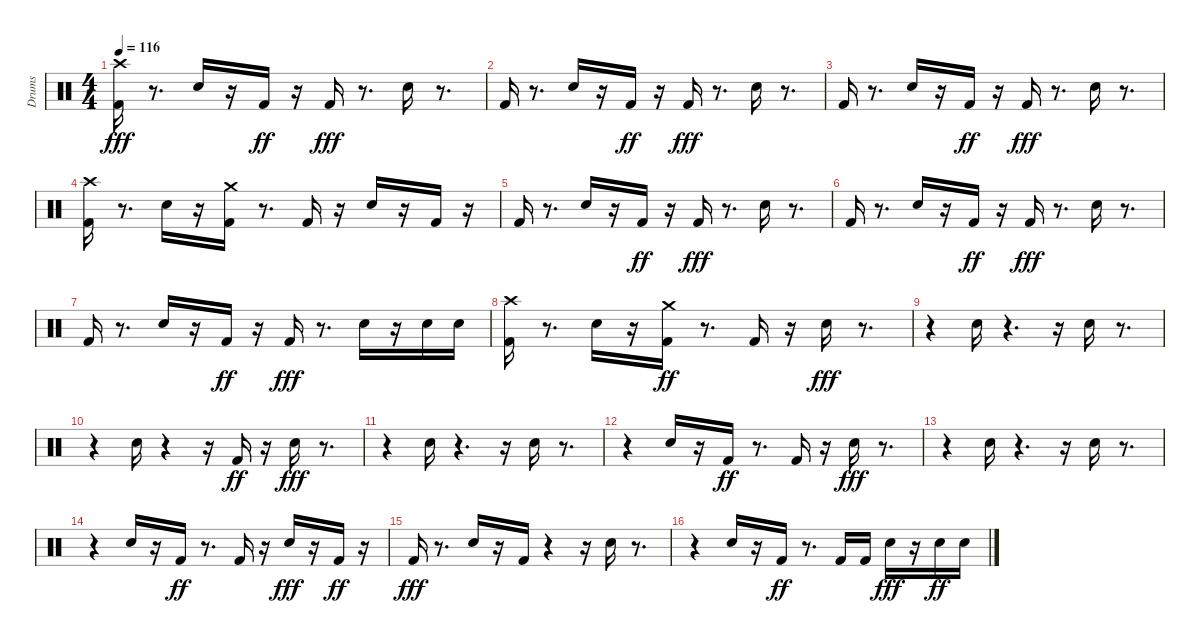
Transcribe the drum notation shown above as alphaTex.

\track ("Drums" "Drums") {instrument percussion}
\staff {score}
\articulation defaults
\ts (4 4)
\tempo 116
\clef neutral
\ks c
("Crash high (hit)" "Kick (hit) 2").16{dy fff} r.8{d} "Snare (hit) 2".16 r.16 "Kick (hit) 2".16{dy ff} r.16 "Kick (hit) 2".16{dy fff} r.8{d} "Snare (hit) 2".16 r.8{d} |
"Kick (hit) 2".16 r.8{d} "Snare (hit) 2".16 r.16 "Kick (hit) 2".16{dy ff} r.16 "Kick (hit) 2".16{dy fff} r.8{d} "Snare (hit) 2".16 r.8{d} |
"Kick (hit) 2".16 r.8{d} "Snare (hit) 2".16 r.16 "Kick (hit) 2".16{dy ff} r.16 "Kick (hit) 2".16{dy fff} r.8{d} "Snare (hit) 2".16 r.8{d} |
("Crash high (hit)" "Kick (hit) 2").16 r.8{d} "Snare (hit) 2".16 r.16 ("Crash medium (hit)" "Kick (hit) 2").16 r.8{d} "Kick (hit) 2".16 r.16 "Snare (hit) 2".16 r.16 "Kick (hit) 2".16 r.16 |
"Kick (hit) 2".16 r.8{d} "Snare (hit) 2".16 r.16 "Kick (hit) 2".16{dy ff} r.16 "Kick (hit) 2".16{dy fff} r.8{d} "Snare (hit) 2".16 r.8{d} |
"Kick (hit) 2".16 r.8{d} "Snare (hit) 2".16 r.16 "Kick (hit) 2".16{dy ff} r.16 "Kick (hit) 2".16{dy fff} r.8{d} "Snare (hit) 2".16 r.8{d} |
"Kick (hit) 2".16 r.8{d} "Snare (hit) 2".16 r.16 "Kick (hit) 2".16{dy ff} r.16 "Kick (hit) 2".16{dy fff} r.8{d} "Snare (hit) 2".16 r.16 "Snare (hit) 2".16 "Snare (hit) 2".16 |
("Crash high (hit)" "Kick (hit) 2").16 r.8{d} "Snare (hit) 2".16 r.16 ("Crash medium (hit)" "Kick (hit) 2").16{dy ff} r.8{d} "Kick (hit) 2".16 r.16 "Snare (hit) 2".16{dy fff} r.8{d} |
r.4 "Snare (hit) 2".16 r.4{d} r.16 "Snare (hit) 2".16 r.8{d} |
r.4 "Snare (hit) 2".16 r.4 r.16 "Kick (hit) 2".16{dy ff} r.16 "Snare (hit) 2".16{dy fff} r.8{d} |
r.4 "Snare (hit) 2".16 r.4{d} r.16 "Snare (hit) 2".16 r.8{d} |
r.4 "Snare (hit) 2".16 r.16 "Kick (hit) 2".16{dy ff} r.8{d} "Kick (hit) 2".16 r.16 "Snare (hit) 2".16{dy fff} r.8{d} |
r.4 "Snare (hit) 2".16 r.4{d} r.16 "Snare (hit) 2".16 r.8{d} |
r.4 "Snare (hit) 2".16 r.16 "Kick (hit) 2".16{dy ff} r.8{d} "Kick (hit) 2".16 r.16 "Snare (hit) 2".16{dy fff} r.16 "Kick (hit) 2".16{dy ff} r.16 |
"Kick (hit) 2".16{dy fff} r.8{d} "Snare (hit) 2".16 r.16 "Kick (hit) 2".16 r.4 r.16 "Snare (hit) 2".16 r.8{d} |
r.4 "Snare (hit) 2".16 r.16 "Kick (hit) 2".16{dy ff} r.8{d} "Kick (hit) 2".16 "Kick (hit) 2".16 "Snare (hit) 2".16{dy fff} r.16 "Snare (hit) 2".16{dy ff} "Snare (hit) 2".16
